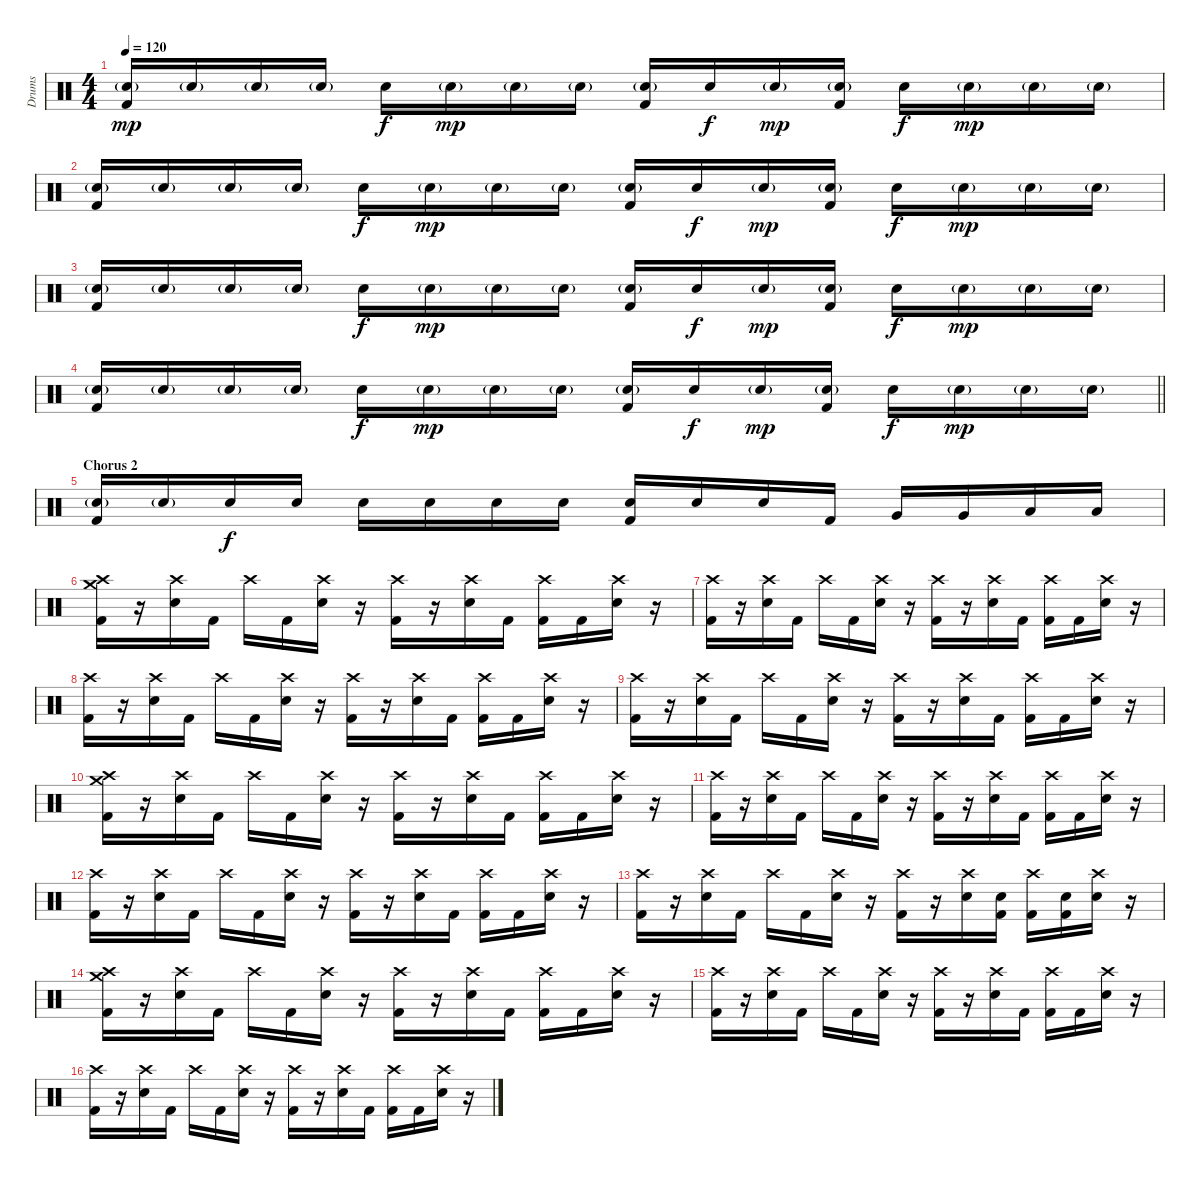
\track ("Drums" "Drums") {instrument percussion}
\staff {score}
\articulation defaults
\ts (4 4)
\tempo 120
\clef neutral
\ks c
("Electric Snare (hit)"{g} "Kick (hit) 2").16{dy mp} "Electric Snare (hit)"{g}.16 "Electric Snare (hit)"{g}.16 "Electric Snare (hit)"{g}.16 "Electric Snare (hit)".16{dy f} "Electric Snare (hit)"{g}.16{dy mp} "Electric Snare (hit)"{g}.16 "Electric Snare (hit)"{g}.16 ("Electric Snare (hit)"{g} "Kick (hit) 2").16 "Electric Snare (hit)".16{dy f} "Electric Snare (hit)"{g}.16{dy mp} ("Electric Snare (hit)"{g} "Kick (hit) 2").16 "Electric Snare (hit)".16{dy f} "Electric Snare (hit)"{g}.16{dy mp} "Electric Snare (hit)"{g}.16 "Electric Snare (hit)"{g}.16 |
("Electric Snare (hit)"{g} "Kick (hit) 2").16 "Electric Snare (hit)"{g}.16 "Electric Snare (hit)"{g}.16 "Electric Snare (hit)"{g}.16 "Electric Snare (hit)".16{dy f} "Electric Snare (hit)"{g}.16{dy mp} "Electric Snare (hit)"{g}.16 "Electric Snare (hit)"{g}.16 ("Electric Snare (hit)"{g} "Kick (hit) 2").16 "Electric Snare (hit)".16{dy f} "Electric Snare (hit)"{g}.16{dy mp} ("Electric Snare (hit)"{g} "Kick (hit) 2").16 "Electric Snare (hit)".16{dy f} "Electric Snare (hit)"{g}.16{dy mp} "Electric Snare (hit)"{g}.16 "Electric Snare (hit)"{g}.16 |
("Electric Snare (hit)"{g} "Kick (hit) 2").16 "Electric Snare (hit)"{g}.16 "Electric Snare (hit)"{g}.16 "Electric Snare (hit)"{g}.16 "Electric Snare (hit)".16{dy f} "Electric Snare (hit)"{g}.16{dy mp} "Electric Snare (hit)"{g}.16 "Electric Snare (hit)"{g}.16 ("Electric Snare (hit)"{g} "Kick (hit) 2").16 "Electric Snare (hit)".16{dy f} "Electric Snare (hit)"{g}.16{dy mp} ("Electric Snare (hit)"{g} "Kick (hit) 2").16 "Electric Snare (hit)".16{dy f} "Electric Snare (hit)"{g}.16{dy mp} "Electric Snare (hit)"{g}.16 "Electric Snare (hit)"{g}.16 |
\barLineRight lightlight
("Electric Snare (hit)"{g} "Kick (hit) 2").16 "Electric Snare (hit)"{g}.16 "Electric Snare (hit)"{g}.16 "Electric Snare (hit)"{g}.16 "Electric Snare (hit)".16{dy f} "Electric Snare (hit)"{g}.16{dy mp} "Electric Snare (hit)"{g}.16 "Electric Snare (hit)"{g}.16 ("Electric Snare (hit)"{g} "Kick (hit) 2").16 "Electric Snare (hit)".16{dy f} "Electric Snare (hit)"{g}.16{dy mp} ("Electric Snare (hit)"{g} "Kick (hit) 2").16 "Electric Snare (hit)".16{dy f} "Electric Snare (hit)"{g}.16{dy mp} "Electric Snare (hit)"{g}.16 "Electric Snare (hit)"{g}.16 |
\section ("" "Chorus 2")
("Electric Snare (hit)"{g} "Kick (hit) 2").16 "Electric Snare (hit)"{g}.16 "Electric Snare (hit)".16{dy f} "Electric Snare (hit)".16 "Electric Snare (hit)".16 "Electric Snare (hit)".16 "Electric Snare (hit)".16 "Electric Snare (hit)".16 ("Electric Snare (hit)" "Kick (hit) 2").16 "Electric Snare (hit)".16 "Electric Snare (hit)".16 "Kick (hit) 2".16 "Very Low Tom (hit)".16 "Very Low Tom (hit)".16 "Low Floor Tom (hit)".16 "Low Floor Tom (hit)".16 |
("Crash high (hit)" "Crash medium (hit)" "Kick (hit) 2").16 r.16 ("Crash high (hit)" "Electric Snare (hit)").16 "Kick (hit) 2".16 "Crash high (hit)".16 "Kick (hit) 2".16 ("Crash high (hit)" "Electric Snare (hit)").16 r.16 ("Crash high (hit)" "Kick (hit) 2").16 r.16 ("Crash high (hit)" "Electric Snare (hit)").16 "Kick (hit) 2".16 ("Crash high (hit)" "Kick (hit) 2").16 "Kick (hit) 2".16 ("Crash high (hit)" "Electric Snare (hit)").16 r.16 |
("Crash high (hit)" "Kick (hit) 2").16 r.16 ("Crash high (hit)" "Electric Snare (hit)").16 "Kick (hit) 2".16 "Crash high (hit)".16 "Kick (hit) 2".16 ("Crash high (hit)" "Electric Snare (hit)").16 r.16 ("Crash high (hit)" "Kick (hit) 2").16 r.16 ("Crash high (hit)" "Electric Snare (hit)").16 "Kick (hit) 2".16 ("Crash high (hit)" "Kick (hit) 2").16 "Kick (hit) 2".16 ("Crash high (hit)" "Electric Snare (hit)").16 r.16 |
("Crash high (hit)" "Kick (hit) 2").16 r.16 ("Crash high (hit)" "Electric Snare (hit)").16 "Kick (hit) 2".16 "Crash high (hit)".16 "Kick (hit) 2".16 ("Crash high (hit)" "Electric Snare (hit)").16 r.16 ("Crash high (hit)" "Kick (hit) 2").16 r.16 ("Crash high (hit)" "Electric Snare (hit)").16 "Kick (hit) 2".16 ("Crash high (hit)" "Kick (hit) 2").16 "Kick (hit) 2".16 ("Crash high (hit)" "Electric Snare (hit)").16 r.16 |
("Crash high (hit)" "Kick (hit) 2").16 r.16 ("Crash high (hit)" "Electric Snare (hit)").16 "Kick (hit) 2".16 "Crash high (hit)".16 "Kick (hit) 2".16 ("Crash high (hit)" "Electric Snare (hit)").16 r.16 ("Crash high (hit)" "Kick (hit) 2").16 r.16 ("Crash high (hit)" "Electric Snare (hit)").16 "Kick (hit) 2".16 ("Crash high (hit)" "Kick (hit) 2").16 "Kick (hit) 2".16 ("Crash high (hit)" "Electric Snare (hit)").16 r.16 |
("Crash high (hit)" "Crash medium (hit)" "Kick (hit) 2").16 r.16 ("Crash high (hit)" "Electric Snare (hit)").16 "Kick (hit) 2".16 "Crash high (hit)".16 "Kick (hit) 2".16 ("Crash high (hit)" "Electric Snare (hit)").16 r.16 ("Crash high (hit)" "Kick (hit) 2").16 r.16 ("Crash high (hit)" "Electric Snare (hit)").16 "Kick (hit) 2".16 ("Crash high (hit)" "Kick (hit) 2").16 "Kick (hit) 2".16 ("Crash high (hit)" "Electric Snare (hit)").16 r.16 |
("Crash high (hit)" "Kick (hit) 2").16 r.16 ("Crash high (hit)" "Electric Snare (hit)").16 "Kick (hit) 2".16 "Crash high (hit)".16 "Kick (hit) 2".16 ("Crash high (hit)" "Electric Snare (hit)").16 r.16 ("Crash high (hit)" "Kick (hit) 2").16 r.16 ("Crash high (hit)" "Electric Snare (hit)").16 "Kick (hit) 2".16 ("Crash high (hit)" "Kick (hit) 2").16 "Kick (hit) 2".16 ("Crash high (hit)" "Electric Snare (hit)").16 r.16 |
("Crash high (hit)" "Kick (hit) 2").16 r.16 ("Crash high (hit)" "Electric Snare (hit)").16 "Kick (hit) 2".16 "Crash high (hit)".16 "Kick (hit) 2".16 ("Crash high (hit)" "Electric Snare (hit)").16 r.16 ("Crash high (hit)" "Kick (hit) 2").16 r.16 ("Crash high (hit)" "Electric Snare (hit)").16 "Kick (hit) 2".16 ("Crash high (hit)" "Kick (hit) 2").16 "Kick (hit) 2".16 ("Crash high (hit)" "Electric Snare (hit)").16 r.16 |
("Crash high (hit)" "Kick (hit) 2").16 r.16 ("Crash high (hit)" "Electric Snare (hit)").16 "Kick (hit) 2".16 "Crash high (hit)".16 "Kick (hit) 2".16 ("Crash high (hit)" "Electric Snare (hit)").16 r.16 ("Crash high (hit)" "Kick (hit) 2").16 r.16 ("Crash high (hit)" "Electric Snare (hit)").16 ("Electric Snare (hit)" "Kick (hit) 2").16 ("Crash high (hit)" "Kick (hit) 2").16 ("Electric Snare (hit)" "Kick (hit) 2").16 ("Crash high (hit)" "Electric Snare (hit)").16 r.16 |
("Crash high (hit)" "Crash medium (hit)" "Kick (hit) 2").16 r.16 ("Crash high (hit)" "Electric Snare (hit)").16 "Kick (hit) 2".16 "Crash high (hit)".16 "Kick (hit) 2".16 ("Crash high (hit)" "Electric Snare (hit)").16 r.16 ("Crash high (hit)" "Kick (hit) 2").16 r.16 ("Crash high (hit)" "Electric Snare (hit)").16 "Kick (hit) 2".16 ("Crash high (hit)" "Kick (hit) 2").16 "Kick (hit) 2".16 ("Crash high (hit)" "Electric Snare (hit)").16 r.16 |
("Crash high (hit)" "Kick (hit) 2").16 r.16 ("Crash high (hit)" "Electric Snare (hit)").16 "Kick (hit) 2".16 "Crash high (hit)".16 "Kick (hit) 2".16 ("Crash high (hit)" "Electric Snare (hit)").16 r.16 ("Crash high (hit)" "Kick (hit) 2").16 r.16 ("Crash high (hit)" "Electric Snare (hit)").16 "Kick (hit) 2".16 ("Crash high (hit)" "Kick (hit) 2").16 "Kick (hit) 2".16 ("Crash high (hit)" "Electric Snare (hit)").16 r.16 |
("Crash high (hit)" "Kick (hit) 2").16 r.16 ("Crash high (hit)" "Electric Snare (hit)").16 "Kick (hit) 2".16 "Crash high (hit)".16 "Kick (hit) 2".16 ("Crash high (hit)" "Electric Snare (hit)").16 r.16 ("Crash high (hit)" "Kick (hit) 2").16 r.16 ("Crash high (hit)" "Electric Snare (hit)").16 "Kick (hit) 2".16 ("Crash high (hit)" "Kick (hit) 2").16 "Kick (hit) 2".16 ("Crash high (hit)" "Electric Snare (hit)").16 r.16
